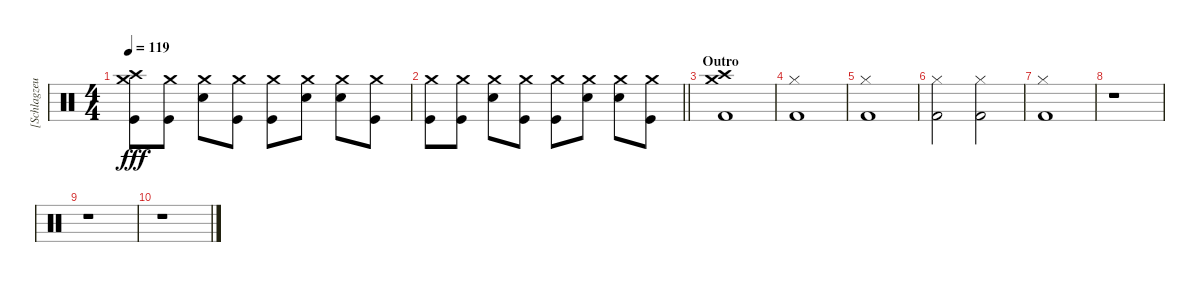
\track ("[Schlagzeug]" "[Schlagzeu") {instrument percussion}
\staff {score}
\articulation defaults
\ts (4 4)
\tempo 119
\clef neutral
\ks c
("Crash medium (hit)" "Crash high (hit)" "Kick (hit)").8{dy fff} ("Crash medium (hit)" "Kick (hit)").8 ("Crash medium (hit)" "Electric Snare (hit)").8 ("Crash medium (hit)" "Kick (hit)").8 ("Crash medium (hit)" "Kick (hit)").8 ("Crash medium (hit)" "Electric Snare (hit)").8 ("Crash medium (hit)" "Electric Snare (hit)").8 ("Crash medium (hit)" "Kick (hit)").8 |
\barLineRight lightlight
("Crash medium (hit)" "Kick (hit)").8 ("Crash medium (hit)" "Kick (hit)").8 ("Crash medium (hit)" "Electric Snare (hit)").8 ("Crash medium (hit)" "Kick (hit)").8 ("Crash medium (hit)" "Kick (hit)").8 ("Crash medium (hit)" "Electric Snare (hit)").8 ("Crash medium (hit)" "Electric Snare (hit)").8 ("Crash medium (hit)" "Kick (hit)").8 |
\section ("" "Outro")
("Crash medium (hit)" "Crash high (hit)" "Kick (hit) 2").1 |
("Hi-Hat (closed)" "Kick (hit) 2").1 |
("Hi-Hat (closed)" "Kick (hit) 2").1 |
("Hi-Hat (closed)" "Kick (hit) 2").2 ("Hi-Hat (closed)" "Kick (hit) 2").2 |
("Hi-Hat (closed)" "Kick (hit) 2").1 |
r.1 |
r.1 |
r.1
